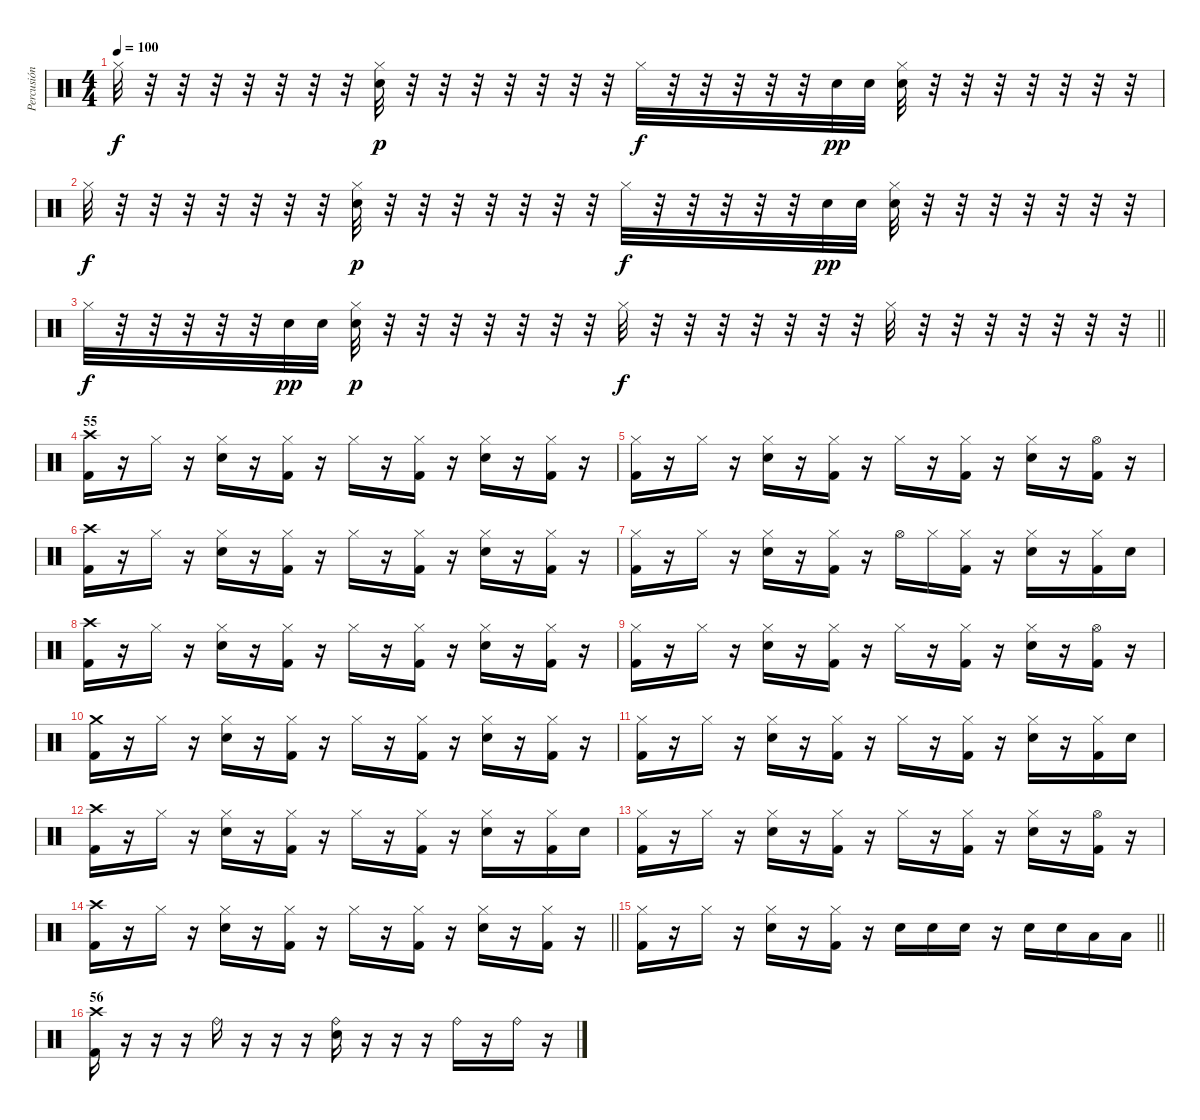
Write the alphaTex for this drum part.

\track ("Percusión" "Percusión") {instrument percussion}
\staff {score}
\articulation defaults
\ts (4 4)
\tempo 100
\clef neutral
\ks c "Hi-Hat (closed)".32{dy f}
r.32 r.32 r.32 r.32 r.32 r.32 r.32 ("Hi-Hat (closed)" "Electric Snare (hit)").32{dy p} r.32 r.32 r.32 r.32 r.32 r.32 r.32 "Hi-Hat (closed)".32{dy f} r.32 r.32 r.32 r.32 r.32 "Electric Snare (hit)".32{dy pp} "Electric Snare (hit)".32 ("Hi-Hat (closed)" "Electric Snare (hit)").32 r.32 r.32 r.32 r.32 r.32 r.32 r.32 |
"Hi-Hat (closed)".32{dy f} r.32 r.32 r.32 r.32 r.32 r.32 r.32 ("Hi-Hat (closed)" "Electric Snare (hit)").32{dy p} r.32 r.32 r.32 r.32 r.32 r.32 r.32 "Hi-Hat (closed)".32{dy f} r.32 r.32 r.32 r.32 r.32 "Electric Snare (hit)".32{dy pp} "Electric Snare (hit)".32 ("Hi-Hat (closed)" "Electric Snare (hit)").32 r.32 r.32 r.32 r.32 r.32 r.32 r.32 |
\barLineRight lightlight "Hi-Hat (closed)".32{dy f}
r.32 r.32 r.32 r.32 r.32 "Electric Snare (hit)".32{dy pp} "Electric Snare (hit)".32 ("Hi-Hat (closed)" "Electric Snare (hit)").32{dy p} r.32 r.32 r.32 r.32 r.32 r.32 r.32 "Hi-Hat (closed)".32{dy f} r.32 r.32 r.32 r.32 r.32 r.32 r.32 "Hi-Hat (closed)".32 r.32 r.32 r.32 r.32 r.32 r.32 r.32 |
\section ("" "55")
("Crash high (hit)" "Kick (hit) 2").16 r.16 "Hi-Hat (closed)".16 r.16 ("Hi-Hat (closed)" "Electric Snare (hit)").16 r.16 ("Hi-Hat (closed)" "Kick (hit) 2").16 r.16 "Hi-Hat (closed)".16 r.16 ("Hi-Hat (closed)" "Kick (hit) 2").16 r.16 ("Hi-Hat (closed)" "Electric Snare (hit)").16 r.16 ("Hi-Hat (closed)" "Kick (hit) 2").16 r.16 |
("Hi-Hat (closed)" "Kick (hit) 2").16 r.16 "Hi-Hat (closed)".16 r.16 ("Hi-Hat (closed)" "Electric Snare (hit)").16 r.16 ("Hi-Hat (closed)" "Kick (hit) 2").16 r.16 "Hi-Hat (closed)".16 r.16 ("Hi-Hat (closed)" "Kick (hit) 2").16 r.16 ("Hi-Hat (closed)" "Electric Snare (hit)").16 r.16 ("Hi-Hat (open)" "Kick (hit) 2").16 r.16 |
("Crash high (hit)" "Kick (hit) 2").16 r.16 "Hi-Hat (closed)".16 r.16 ("Hi-Hat (closed)" "Electric Snare (hit)").16 r.16 ("Hi-Hat (closed)" "Kick (hit) 2").16 r.16 "Hi-Hat (closed)".16 r.16 ("Hi-Hat (closed)" "Kick (hit) 2").16 r.16 ("Hi-Hat (closed)" "Electric Snare (hit)").16 r.16 ("Hi-Hat (closed)" "Kick (hit) 2").16 r.16 |
("Hi-Hat (closed)" "Kick (hit) 2").16 r.16 "Hi-Hat (closed)".16 r.16 ("Hi-Hat (closed)" "Electric Snare (hit)").16 r.16 ("Hi-Hat (closed)" "Kick (hit) 2").16 r.16 "Hi-Hat (open)".16 "Hi-Hat (closed)".16 ("Hi-Hat (closed)" "Kick (hit) 2").16 r.16 ("Hi-Hat (closed)" "Electric Snare (hit)").16 r.16 ("Hi-Hat (closed)" "Kick (hit) 2").16 "Electric Snare (hit)".16 |
("Crash high (hit)" "Kick (hit) 2").16 r.16 "Hi-Hat (closed)".16 r.16 ("Hi-Hat (closed)" "Electric Snare (hit)").16 r.16 ("Hi-Hat (closed)" "Kick (hit) 2").16 r.16 "Hi-Hat (closed)".16 r.16 ("Hi-Hat (closed)" "Kick (hit) 2").16 r.16 ("Hi-Hat (closed)" "Electric Snare (hit)").16 r.16 ("Hi-Hat (closed)" "Kick (hit) 2").16 r.16 |
("Hi-Hat (closed)" "Kick (hit) 2").16 r.16 "Hi-Hat (closed)".16 r.16 ("Hi-Hat (closed)" "Electric Snare (hit)").16 r.16 ("Hi-Hat (closed)" "Kick (hit) 2").16 r.16 "Hi-Hat (closed)".16 r.16 ("Hi-Hat (closed)" "Kick (hit) 2").16 r.16 ("Hi-Hat (closed)" "Electric Snare (hit)").16 r.16 ("Hi-Hat (open)" "Kick (hit) 2").16 r.16 |
("Crash medium (hit)" "Kick (hit) 2").16 r.16 "Hi-Hat (closed)".16 r.16 ("Hi-Hat (closed)" "Electric Snare (hit)").16 r.16 ("Hi-Hat (closed)" "Kick (hit) 2").16 r.16 "Hi-Hat (closed)".16 r.16 ("Hi-Hat (closed)" "Kick (hit) 2").16 r.16 ("Hi-Hat (closed)" "Electric Snare (hit)").16 r.16 ("Hi-Hat (closed)" "Kick (hit) 2").16 r.16 |
("Hi-Hat (closed)" "Kick (hit) 2").16 r.16 "Hi-Hat (closed)".16 r.16 ("Hi-Hat (closed)" "Electric Snare (hit)").16 r.16 ("Hi-Hat (closed)" "Kick (hit) 2").16 r.16 "Hi-Hat (closed)".16 r.16 ("Hi-Hat (closed)" "Kick (hit) 2").16 r.16 ("Hi-Hat (closed)" "Electric Snare (hit)").16 r.16 ("Hi-Hat (closed)" "Kick (hit) 2").16 "Electric Snare (hit)".16 |
("Crash high (hit)" "Kick (hit) 2").16 r.16 "Hi-Hat (closed)".16 r.16 ("Hi-Hat (closed)" "Electric Snare (hit)").16 r.16 ("Hi-Hat (closed)" "Kick (hit) 2").16 r.16 "Hi-Hat (closed)".16 r.16 ("Hi-Hat (closed)" "Kick (hit) 2").16 r.16 ("Hi-Hat (closed)" "Electric Snare (hit)").16 r.16 ("Hi-Hat (closed)" "Kick (hit) 2").16 "Electric Snare (hit)".16 |
("Hi-Hat (closed)" "Kick (hit) 2").16 r.16 "Hi-Hat (closed)".16 r.16 ("Hi-Hat (closed)" "Electric Snare (hit)").16 r.16 ("Hi-Hat (closed)" "Kick (hit) 2").16 r.16 "Hi-Hat (closed)".16 r.16 ("Hi-Hat (closed)" "Kick (hit) 2").16 r.16 ("Hi-Hat (closed)" "Electric Snare (hit)").16 r.16 ("Hi-Hat (open)" "Kick (hit) 2").16 r.16 |
\barLineRight lightlight
("Crash high (hit)" "Kick (hit) 2").16 r.16 "Hi-Hat (closed)".16 r.16 ("Hi-Hat (closed)" "Electric Snare (hit)").16 r.16 ("Hi-Hat (closed)" "Kick (hit) 2").16 r.16 "Hi-Hat (closed)".16 r.16 ("Hi-Hat (closed)" "Kick (hit) 2").16 r.16 ("Hi-Hat (closed)" "Electric Snare (hit)").16 r.16 ("Hi-Hat (closed)" "Kick (hit) 2").16 r.16 |
\section ("" "")
\barLineRight lightlight
("Hi-Hat (closed)" "Kick (hit) 2").16 r.16 "Hi-Hat (closed)".16 r.16 ("Hi-Hat (closed)" "Electric Snare (hit)").16 r.16 ("Hi-Hat (closed)" "Kick (hit) 2").16 r.16 "Electric Snare (hit)".16 "Electric Snare (hit)".16 "Electric Snare (hit)".16 r.16 "Electric Snare (hit)".16 "Electric Snare (hit)".16 "Low Tom (hit)".16 "Low Tom (hit)".16 |
\section ("" "56")
("Crash high (hit)" "Kick (hit) 2").16 r.16 r.16 r.16 "Ride (bell)".16 r.16 r.16 r.16 ("Ride (bell)" "Electric Snare (hit)").16 r.16 r.16 r.16 "Ride (bell)".16 r.16 "Ride (bell)".16 r.16
